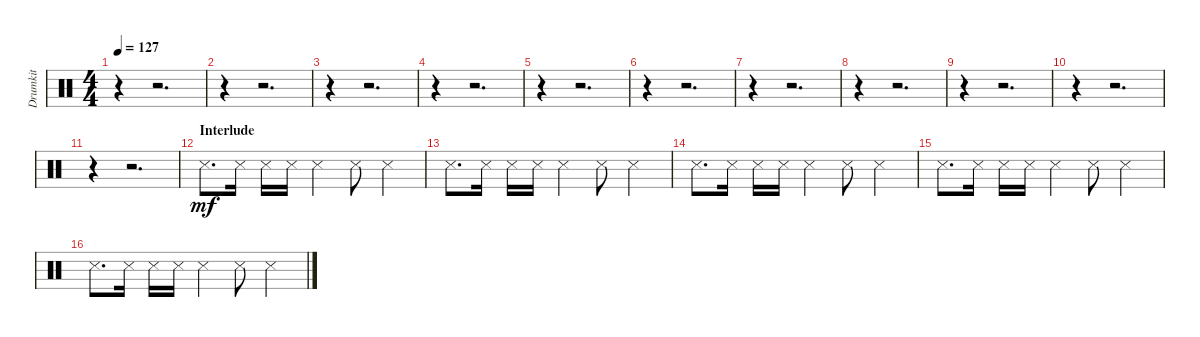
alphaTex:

\track ("Drumkit" "Drumkit") {instrument percussion}
\staff {score}
\articulation defaults
\ts (4 4)
\tempo 127
\clef neutral
\ks c
r.4{dy mf} r.2{d} |
r.4 r.2{d} |
r.4 r.2{d} |
r.4 r.2{d} |
r.4 r.2{d} |
r.4 r.2{d} |
r.4 r.2{d} |
r.4 r.2{d} |
r.4 r.2{d} |
r.4 r.2{d} |
r.4 r.2{d} |
\section ("" "Interlude")
"Snare (side stick) 3".8{d} "Snare (side stick) 3".16 "Snare (side stick) 3".16 "Snare (side stick) 3".16 "Snare (side stick) 3".4 "Snare (side stick) 3".8 "Snare (side stick) 3".4 |
"Snare (side stick) 3".8{d} "Snare (side stick) 3".16 "Snare (side stick) 3".16 "Snare (side stick) 3".16 "Snare (side stick) 3".4 "Snare (side stick) 3".8 "Snare (side stick) 3".4 |
"Snare (side stick) 3".8{d} "Snare (side stick) 3".16 "Snare (side stick) 3".16 "Snare (side stick) 3".16 "Snare (side stick) 3".4 "Snare (side stick) 3".8 "Snare (side stick) 3".4 |
"Snare (side stick) 3".8{d} "Snare (side stick) 3".16 "Snare (side stick) 3".16 "Snare (side stick) 3".16 "Snare (side stick) 3".4 "Snare (side stick) 3".8 "Snare (side stick) 3".4 |
"Snare (side stick) 3".8{d} "Snare (side stick) 3".16 "Snare (side stick) 3".16 "Snare (side stick) 3".16 "Snare (side stick) 3".4 "Snare (side stick) 3".8 "Snare (side stick) 3".4
